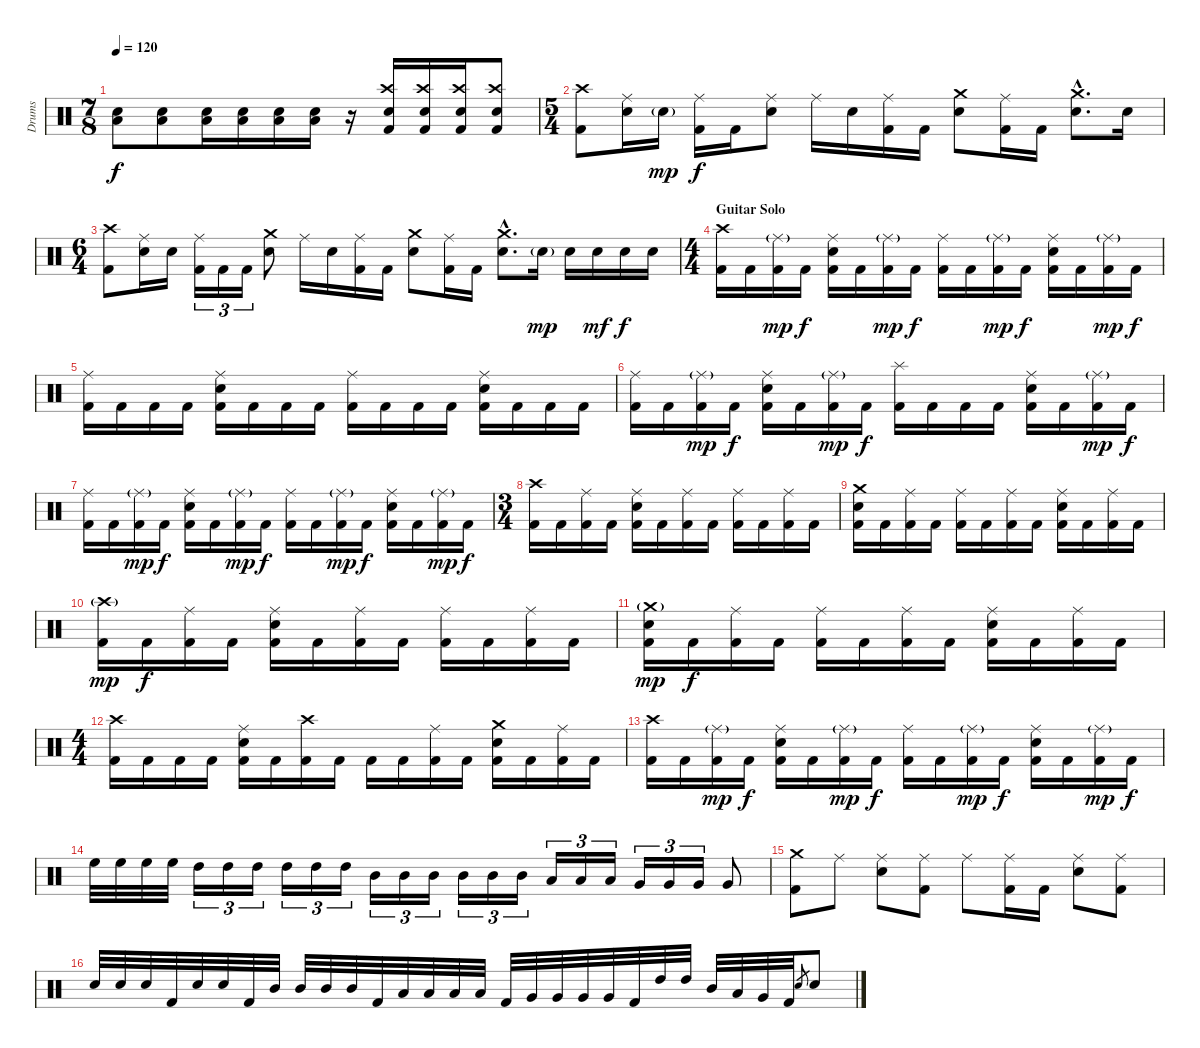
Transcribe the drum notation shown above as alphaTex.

\track ("Drums" "Drums") {instrument percussion}
\staff {score}
\articulation defaults
\ts (7 8)
\tempo 120
\clef neutral
\ks c
("Low Floor Tom (hit)" "Snare (hit) 2").8{dy f} ("Low Floor Tom (hit)" "Snare (hit) 2").8 ("Low Floor Tom (hit)" "Snare (hit) 2").16 ("Low Floor Tom (hit)" "Snare (hit) 2").16 ("Low Floor Tom (hit)" "Snare (hit) 2").16 ("Low Floor Tom (hit)" "Snare (hit) 2").16 r.16 ("Crash high (hit)" "Snare (hit) 2" "Kick (hit) 2").16 ("Crash high (hit)" "Snare (hit) 2" "Kick (hit) 2").16 ("Crash high (hit)" "Snare (hit) 2" "Kick (hit) 2").16 ("Crash high (hit)" "Snare (hit) 2" "Kick (hit) 2").8 |
\ts (5 4)
("Crash high (hit)" "Kick (hit) 2").8 ("Ride (middle)" "Snare (hit) 2").16 "Snare (hit) 2"{g}.16{dy mp} ("Ride (middle)" "Kick (hit) 2").16{dy f} "Kick (hit) 2".16 ("Ride (middle)" "Snare (hit) 2").8 "Ride (middle)".16 "Snare (hit) 2".16 ("Ride (middle)" "Kick (hit) 2").16 "Kick (hit) 2".16 ("Crash medium (hit)" "Snare (hit) 2").8 ("Ride (middle)" "Kick (hit) 2").16 "Kick (hit) 2".16 ("Crash medium (hit)"{hac} "Snare (hit) 2"{hac}).8{d} "Snare (hit) 2".16 |
\ts (6 4)
("Crash high (hit)" "Kick (hit) 2").8 ("Ride (middle)" "Snare (hit) 2").16 "Snare (hit) 2".16 ("Ride (middle)" "Kick (hit) 2").16{tu (3 2)} "Kick (hit) 2".16{tu (3 2)} "Kick (hit) 2".16{tu (3 2)} ("Crash medium (hit)" "Snare (hit) 2").8 "Ride (middle)".16 "Snare (hit) 2".16 ("Ride (middle)" "Kick (hit) 2").16 "Kick (hit) 2".16 ("Crash medium (hit)" "Snare (hit) 2").8 ("Ride (middle)" "Kick (hit) 2").16 "Kick (hit) 2".16 ("Crash medium (hit)"{hac} "Snare (hit) 2"{hac}).8{d} "Snare (hit) 2"{g}.16{dy mp} "Snare (hit) 2".16 "Snare (hit) 2".16{dy mf} "Snare (hit) 2".16{dy f} "Snare (hit) 2".16 |
\ts (4 4)
\section ("" "Guitar Solo")
("Crash high (hit)" "Kick (hit) 2").16 "Kick (hit) 2".16 ("Ride (middle)"{g} "Kick (hit) 2").16{dy mp} "Kick (hit) 2".16{dy f} ("Ride (middle)" "Snare (hit) 2" "Kick (hit) 2").16 "Kick (hit) 2".16 ("Ride (middle)"{g} "Kick (hit) 2").16{dy mp} "Kick (hit) 2".16{dy f} ("Ride (middle)" "Kick (hit) 2").16 "Kick (hit) 2".16 ("Ride (middle)"{g} "Kick (hit) 2").16{dy mp} "Kick (hit) 2".16{dy f} ("Ride (middle)" "Snare (hit) 2" "Kick (hit) 2").16 "Kick (hit) 2".16 ("Ride (middle)"{g} "Kick (hit) 2").16{dy mp} "Kick (hit) 2".16{dy f} |
("Ride (middle)" "Kick (hit) 2").16 "Kick (hit) 2".16 "Kick (hit) 2".16 "Kick (hit) 2".16 ("Ride (middle)" "Snare (hit) 2" "Kick (hit) 2").16 "Kick (hit) 2".16 "Kick (hit) 2".16 "Kick (hit) 2".16 ("Ride (middle)" "Kick (hit) 2").16 "Kick (hit) 2".16 "Kick (hit) 2".16 "Kick (hit) 2".16 ("Ride (middle)" "Snare (hit) 2" "Kick (hit) 2").16 "Kick (hit) 2".16 "Kick (hit) 2".16 "Kick (hit) 2".16 |
("Ride (middle)" "Kick (hit) 2").16 "Kick (hit) 2".16 ("Ride (middle)"{g} "Kick (hit) 2").16{dy mp} "Kick (hit) 2".16{dy f} ("Ride (middle)" "Snare (hit) 2" "Kick (hit) 2").16 "Kick (hit) 2".16 ("Ride (middle)"{g} "Kick (hit) 2").16{dy mp} "Kick (hit) 2".16{dy f} ("Splash (hit)" "Kick (hit) 2").16 "Kick (hit) 2".16 "Kick (hit) 2".16 "Kick (hit) 2".16 ("Ride (middle)" "Snare (hit) 2" "Kick (hit) 2").16 "Kick (hit) 2".16 ("Ride (middle)"{g} "Kick (hit) 2").16{dy mp} "Kick (hit) 2".16{dy f} |
("Ride (middle)" "Kick (hit) 2").16 "Kick (hit) 2".16 ("Ride (middle)"{g} "Kick (hit) 2").16{dy mp} "Kick (hit) 2".16{dy f} ("Ride (middle)" "Snare (hit) 2" "Kick (hit) 2").16 "Kick (hit) 2".16 ("Ride (middle)"{g} "Kick (hit) 2").16{dy mp} "Kick (hit) 2".16{dy f} ("Ride (middle)" "Kick (hit) 2").16 "Kick (hit) 2".16 ("Ride (middle)"{g} "Kick (hit) 2").16{dy mp} "Kick (hit) 2".16{dy f} ("Ride (middle)" "Snare (hit) 2" "Kick (hit) 2").16 "Kick (hit) 2".16 ("Ride (middle)"{g} "Kick (hit) 2").16{dy mp} "Kick (hit) 2".16{dy f} |
\ts (3 4)
("Crash high (hit)" "Kick (hit) 2").16 "Kick (hit) 2".16 ("Ride (middle)" "Kick (hit) 2").16 "Kick (hit) 2".16 ("Ride (middle)" "Snare (hit) 2" "Kick (hit) 2").16 "Kick (hit) 2".16 ("Ride (middle)" "Kick (hit) 2").16 "Kick (hit) 2".16 ("Ride (middle)" "Kick (hit) 2").16 "Kick (hit) 2".16 ("Ride (middle)" "Kick (hit) 2").16 "Kick (hit) 2".16 |
("Crash medium (hit)" "Snare (hit) 2" "Kick (hit) 2").16 "Kick (hit) 2".16 ("Ride (middle)" "Kick (hit) 2").16 "Kick (hit) 2".16 ("Ride (middle)" "Kick (hit) 2").16 "Kick (hit) 2".16 ("Ride (middle)" "Kick (hit) 2").16 "Kick (hit) 2".16 ("Ride (middle)" "Snare (hit) 2" "Kick (hit) 2").16 "Kick (hit) 2".16 ("Ride (middle)" "Kick (hit) 2").16 "Kick (hit) 2".16 |
("Crash high (hit)"{g} "Kick (hit) 2").16{dy mp} "Kick (hit) 2".16{dy f} ("Ride (middle)" "Kick (hit) 2").16 "Kick (hit) 2".16 ("Ride (middle)" "Snare (hit) 2" "Kick (hit) 2").16 "Kick (hit) 2".16 ("Ride (middle)" "Kick (hit) 2").16 "Kick (hit) 2".16 ("Ride (middle)" "Kick (hit) 2").16 "Kick (hit) 2".16 ("Ride (middle)" "Kick (hit) 2").16 "Kick (hit) 2".16 |
("Crash medium (hit)"{g} "Snare (hit) 2" "Kick (hit) 2").16{dy mp} "Kick (hit) 2".16{dy f} ("Ride (middle)" "Kick (hit) 2").16 "Kick (hit) 2".16 ("Ride (middle)" "Kick (hit) 2").16 "Kick (hit) 2".16 ("Ride (middle)" "Kick (hit) 2").16 "Kick (hit) 2".16 ("Ride (middle)" "Snare (hit) 2" "Kick (hit) 2").16 "Kick (hit) 2".16 ("Ride (middle)" "Kick (hit) 2").16 "Kick (hit) 2".16 |
\ts (4 4)
("Crash high (hit)" "Kick (hit) 2").16 "Kick (hit) 2".16 "Kick (hit) 2".16 "Kick (hit) 2".16 ("Ride (middle)" "Snare (hit) 2" "Kick (hit) 2").16 "Kick (hit) 2".16 ("Crash high (hit)" "Kick (hit) 2").16 "Kick (hit) 2".16 "Kick (hit) 2".16 "Kick (hit) 2".16 ("Ride (middle)" "Kick (hit) 2").16 "Kick (hit) 2".16 ("Crash medium (hit)" "Snare (hit) 2" "Kick (hit) 2").16 "Kick (hit) 2".16 ("Ride (middle)" "Kick (hit) 2").16 "Kick (hit) 2".16 |
("Crash high (hit)" "Kick (hit) 2").16 "Kick (hit) 2".16 ("Ride (middle)"{g} "Kick (hit) 2").16{dy mp} "Kick (hit) 2".16{dy f} ("Ride (middle)" "Snare (hit) 2" "Kick (hit) 2").16 "Kick (hit) 2".16 ("Ride (middle)"{g} "Kick (hit) 2").16{dy mp} "Kick (hit) 2".16{dy f} ("Ride (middle)" "Kick (hit) 2").16 "Kick (hit) 2".16 ("Ride (middle)"{g} "Kick (hit) 2").16{dy mp} "Kick (hit) 2".16{dy f} ("Ride (middle)" "Snare (hit) 2" "Kick (hit) 2").16 "Kick (hit) 2".16 ("Ride (middle)"{g} "Kick (hit) 2").16{dy mp} "Kick (hit) 2".16{dy f} |
"High Floor Tom (hit)".32 "High Floor Tom (hit)".32 "High Floor Tom (hit)".32 "High Floor Tom (hit)".32 "High Tom (hit)".16{tu (3 2)} "High Tom (hit)".16{tu (3 2)} "High Tom (hit)".16{tu (3 2)} "High Tom (hit)".16{tu (3 2)} "High Tom (hit)".16{tu (3 2)} "High Tom (hit)".16{tu (3 2)} "Mid Tom (hit)".16{tu (3 2)} "Mid Tom (hit)".16{tu (3 2)} "Mid Tom (hit)".16{tu (3 2)} "Mid Tom (hit)".16{tu (3 2)} "Mid Tom (hit)".16{tu (3 2)} "Mid Tom (hit)".16{tu (3 2)} "Low Tom (hit)".16{tu (3 2)} "Low Tom (hit)".16{tu (3 2)} "Low Tom (hit)".16{tu (3 2)} "Very Low Tom (hit)".16{tu (3 2)} "Very Low Tom (hit)".16{tu (3 2)} "Very Low Tom (hit)".16{tu (3 2)} "Very Low Tom (hit)".8 |
("Crash medium (hit)" "Kick (hit) 2").8 "Ride (middle)".8 ("Ride (middle)" "Snare (hit) 2").8 ("Ride (middle)" "Kick (hit) 2").8 "Ride (middle)".8 ("Ride (middle)" "Kick (hit) 2").16 "Kick (hit) 2".16 ("Ride (middle)" "Snare (hit) 2").8 ("Ride (middle)" "Kick (hit) 2").8 |
"Snare (hit) 2".32 "Snare (hit) 2".32 "Snare (hit) 2".32 "Kick (hit) 2".32 "Snare (hit) 2".32 "Snare (hit) 2".32 "Kick (hit) 2".32 "Mid Tom (hit)".32 "Mid Tom (hit)".32 "Mid Tom (hit)".32 "Mid Tom (hit)".32 "Kick (hit) 2".32 "Low Tom (hit)".32 "Low Tom (hit)".32 "Low Tom (hit)".32 "Low Tom (hit)".32 "Kick (hit) 2".32 "Very Low Tom (hit)".32 "Very Low Tom (hit)".32 "Very Low Tom (hit)".32 "Very Low Tom (hit)".32 "Kick (hit) 2".32 "High Tom (hit)".32 "High Tom (hit)".32 "Mid Tom (hit)".32 "Low Tom (hit)".32 "Very Low Tom (hit)".32 "Kick (hit) 2".32 "Snare (hit) 2".8{gr} "Snare (hit) 2".8
